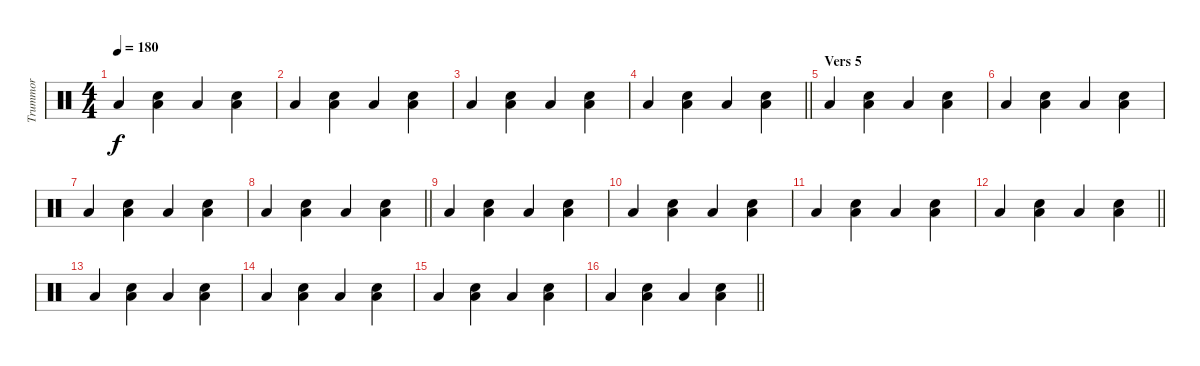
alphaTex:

\track ("Trummor" "Trummor") {instrument percussion}
\staff {score}
\articulation defaults
\ts (4 4)
\tempo 180
\clef neutral
\ks c "Low Tom (hit)".4{dy f}
("Low Tom (hit)" "Snare (hit) 2").4 "Low Tom (hit)".4 ("Low Tom (hit)" "Snare (hit) 2").4 |
"Low Tom (hit)".4 ("Low Tom (hit)" "Snare (hit) 2").4 "Low Tom (hit)".4 ("Low Tom (hit)" "Snare (hit) 2").4 |
"Low Tom (hit)".4 ("Low Tom (hit)" "Snare (hit) 2").4 "Low Tom (hit)".4 ("Low Tom (hit)" "Snare (hit) 2").4 |
\barLineRight lightlight "Low Tom (hit)".4
("Low Tom (hit)" "Snare (hit) 2").4 "Low Tom (hit)".4 ("Low Tom (hit)" "Snare (hit) 2").4 |
\section ("" "Vers 5")
"Low Tom (hit)".4 ("Low Tom (hit)" "Snare (hit) 2").4 "Low Tom (hit)".4 ("Low Tom (hit)" "Snare (hit) 2").4 |
"Low Tom (hit)".4 ("Low Tom (hit)" "Snare (hit) 2").4 "Low Tom (hit)".4 ("Low Tom (hit)" "Snare (hit) 2").4 |
"Low Tom (hit)".4 ("Low Tom (hit)" "Snare (hit) 2").4 "Low Tom (hit)".4 ("Low Tom (hit)" "Snare (hit) 2").4 |
\barLineRight lightlight "Low Tom (hit)".4
("Low Tom (hit)" "Snare (hit) 2").4 "Low Tom (hit)".4 ("Low Tom (hit)" "Snare (hit) 2").4 |
"Low Tom (hit)".4 ("Low Tom (hit)" "Snare (hit) 2").4 "Low Tom (hit)".4 ("Low Tom (hit)" "Snare (hit) 2").4 |
"Low Tom (hit)".4 ("Low Tom (hit)" "Snare (hit) 2").4 "Low Tom (hit)".4 ("Low Tom (hit)" "Snare (hit) 2").4 |
"Low Tom (hit)".4 ("Low Tom (hit)" "Snare (hit) 2").4 "Low Tom (hit)".4 ("Low Tom (hit)" "Snare (hit) 2").4 |
\barLineRight lightlight "Low Tom (hit)".4
("Low Tom (hit)" "Snare (hit) 2").4 "Low Tom (hit)".4 ("Low Tom (hit)" "Snare (hit) 2").4 |
"Low Tom (hit)".4 ("Low Tom (hit)" "Snare (hit) 2").4 "Low Tom (hit)".4 ("Low Tom (hit)" "Snare (hit) 2").4 |
"Low Tom (hit)".4 ("Low Tom (hit)" "Snare (hit) 2").4 "Low Tom (hit)".4 ("Low Tom (hit)" "Snare (hit) 2").4 |
"Low Tom (hit)".4 ("Low Tom (hit)" "Snare (hit) 2").4 "Low Tom (hit)".4 ("Low Tom (hit)" "Snare (hit) 2").4 |
\barLineRight lightlight "Low Tom (hit)".4
("Low Tom (hit)" "Snare (hit) 2").4 "Low Tom (hit)".4 ("Low Tom (hit)" "Snare (hit) 2").4
